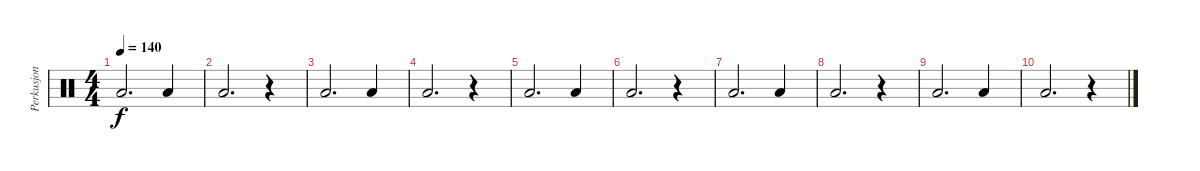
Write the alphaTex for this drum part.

\track ("Perkusjon" "Perkusjon") {instrument percussion}
\staff {score}
\articulation defaults
\ts (4 4)
\tempo 140
\clef neutral
\ks c "Low Floor Tom (hit)".2{d dy f} "Low Floor Tom (hit)".4
|
"Low Floor Tom (hit)".2{d} r.4 |
"Low Floor Tom (hit)".2{d} "Low Floor Tom (hit)".4 |
"Low Floor Tom (hit)".2{d} r.4 |
"Low Floor Tom (hit)".2{d} "Low Floor Tom (hit)".4 |
"Low Floor Tom (hit)".2{d} r.4 |
"Low Floor Tom (hit)".2{d} "Low Floor Tom (hit)".4 |
"Low Floor Tom (hit)".2{d} r.4 |
"Low Floor Tom (hit)".2{d} "Low Floor Tom (hit)".4 |
"Low Floor Tom (hit)".2{d} r.4
